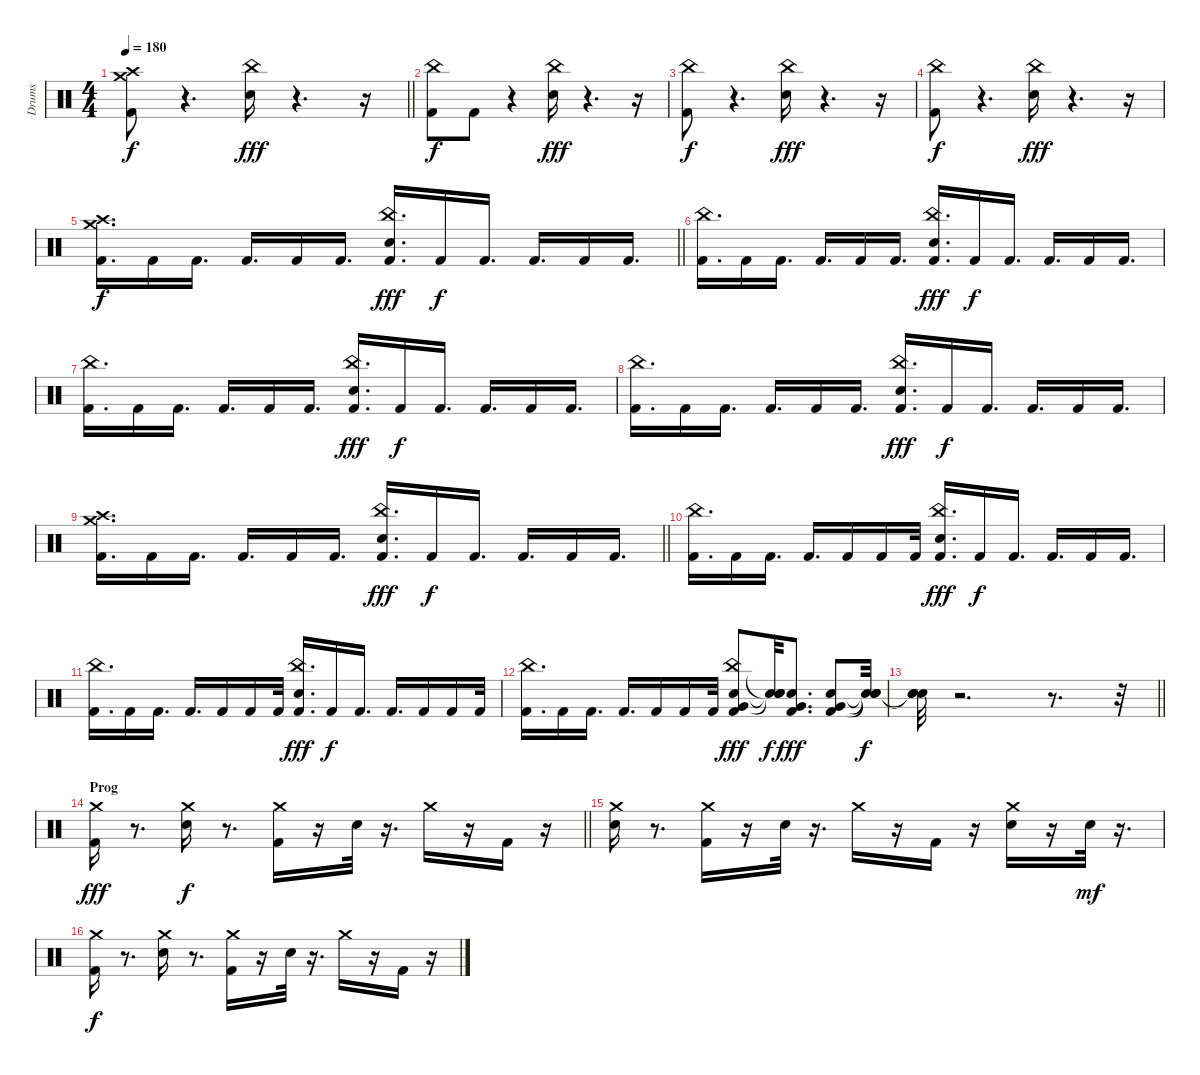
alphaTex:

\track ("Drums" "Drums") {instrument percussion}
\staff {score}
\articulation defaults
\ts (4 4)
\tempo 180
\clef neutral
\barLineRight lightlight
\ks c
("Crash high (hit)" "Crash medium (hit)" "Kick (hit) 2").8{dy f} r.4{d} ("China (hit)" "Snare (hit) 2").16{dy fff} r.4{d} r.16 |
("China (hit)" "Kick (hit) 2").8{dy f} "Kick (hit) 2".8 r.4 ("China (hit)" "Snare (hit) 2").16{dy fff} r.4{d} r.16 |
("Kick (hit) 2" "China (hit)").8{dy f} r.4{d} ("China (hit)" "Snare (hit) 2").16{dy fff} r.4{d} r.16 |
("China (hit)" "Kick (hit) 2").8{dy f} r.4{d} ("China (hit)" "Snare (hit) 2").16{dy fff} r.4{d} r.16 |
\barLineRight lightlight
("Crash high (hit)" "Crash medium (hit)" "Kick (hit) 2").16{d dy f} "Kick (hit) 2".16 "Kick (hit) 2".16{d} "Kick (hit) 2".16{d} "Kick (hit) 2".16 "Kick (hit) 2".16{d} ("China (hit)" "Snare (hit) 2" "Kick (hit) 2").16{d dy fff} "Kick (hit) 2".16{dy f} "Kick (hit) 2".16{d} "Kick (hit) 2".16{d} "Kick (hit) 2".16 "Kick (hit) 2".16{d} |
("China (hit)" "Kick (hit) 2").16{d} "Kick (hit) 2".16 "Kick (hit) 2".16{d} "Kick (hit) 2".16{d} "Kick (hit) 2".16 "Kick (hit) 2".16{d} ("China (hit)" "Kick (hit) 2" "Snare (hit) 2").16{d dy fff} "Kick (hit) 2".16{dy f} "Kick (hit) 2".16{d} "Kick (hit) 2".16{d} "Kick (hit) 2".16 "Kick (hit) 2".16{d} |
("China (hit)" "Kick (hit) 2").16{d} "Kick (hit) 2".16 "Kick (hit) 2".16{d} "Kick (hit) 2".16{d} "Kick (hit) 2".16 "Kick (hit) 2".16{d} ("China (hit)" "Snare (hit) 2" "Kick (hit) 2").16{d dy fff} "Kick (hit) 2".16{dy f} "Kick (hit) 2".16{d} "Kick (hit) 2".16{d} "Kick (hit) 2".16 "Kick (hit) 2".16{d} |
("China (hit)" "Kick (hit) 2").16{d} "Kick (hit) 2".16 "Kick (hit) 2".16{d} "Kick (hit) 2".16{d} "Kick (hit) 2".16 "Kick (hit) 2".16{d} ("China (hit)" "Kick (hit) 2" "Snare (hit) 2").16{d dy fff} "Kick (hit) 2".16{dy f} "Kick (hit) 2".16{d} "Kick (hit) 2".16{d} "Kick (hit) 2".16 "Kick (hit) 2".16{d} |
\barLineRight lightlight
("Crash high (hit)" "Crash medium (hit)" "Kick (hit) 2").16{d} "Kick (hit) 2".16 "Kick (hit) 2".16{d} "Kick (hit) 2".16{d} "Kick (hit) 2".16 "Kick (hit) 2".16{d} ("China (hit)" "Snare (hit) 2" "Kick (hit) 2").16{d dy fff} "Kick (hit) 2".16{dy f} "Kick (hit) 2".16{d} "Kick (hit) 2".16{d} "Kick (hit) 2".16 "Kick (hit) 2".16{d} |
("China (hit)" "Kick (hit) 2").16{d} "Kick (hit) 2".16 "Kick (hit) 2".16{d} "Kick (hit) 2".16{d} "Kick (hit) 2".16 "Kick (hit) 2".16 "Kick (hit) 2".32 ("China (hit)" "Kick (hit) 2" "Snare (hit) 2").16{d dy fff} "Kick (hit) 2".16{dy f} "Kick (hit) 2".16{d} "Kick (hit) 2".16{d} "Kick (hit) 2".16 "Kick (hit) 2".16{d} |
("Kick (hit) 2" "China (hit)").16{d} "Kick (hit) 2".16 "Kick (hit) 2".16{d} "Kick (hit) 2".16{d} "Kick (hit) 2".16 "Kick (hit) 2".16 "Kick (hit) 2".32 ("China (hit)" "Snare (hit) 2" "Kick (hit) 2").16{d dy fff} "Kick (hit) 2".16{dy f} "Kick (hit) 2".16{d} "Kick (hit) 2".16{d} "Kick (hit) 2".16 "Kick (hit) 2".16 "Kick (hit) 2".32 |
("China (hit)" "Kick (hit) 2").16{d} "Kick (hit) 2".16 "Kick (hit) 2".16{d} "Kick (hit) 2".16{d} "Kick (hit) 2".16 "Kick (hit) 2".16 "Kick (hit) 2".32 ("China (hit)" "Snare (hit) 2" "Very Low Tom (hit)" "Kick (hit) 2").8{dy fff} ("Snare (hit)"{t} "Snare (hit)"{t} "Snare (hit)"{t}).32{dy f} ("Snare (hit) 2" "Very Low Tom (hit)" "Kick (hit) 2").8{d dy fff} ("Snare (hit) 2" "Very Low Tom (hit)" "Kick (hit) 2").8 ("Snare (hit)"{t} "Snare (hit)"{t} "Snare (hit)"{t}).32{dy f} |
\barLineRight lightlight
("Snare (hit)"{t} "Snare (hit)"{t} "Snare (hit)"{t}).32 r.2{d} r.8{d} r.32 |
\section ("" "Prog")
\barLineRight lightlight
("Kick (hit) 2" "Crash medium (hit)").16{dy fff} r.8{d} ("Snare (hit) 2" "Crash medium (hit)").16{dy f} r.8{d} ("Kick (hit) 2" "Crash medium (hit)").16 r.16 "Snare (hit) 2".32 r.16{d} "Crash medium (hit)".16 r.16 "Kick (hit) 2".16 r.16 |
("Snare (hit) 2" "Crash medium (hit)").16 r.8{d} ("Kick (hit) 2" "Crash medium (hit)").16 r.16 "Snare (hit) 2".32 r.16{d} "Crash medium (hit)".16 r.16 "Kick (hit) 2".16 r.16 ("Snare (hit) 2" "Crash medium (hit)").16 r.16 "Snare (hit) 2".32{dy mf} r.16{d} |
("Kick (hit) 2" "Crash medium (hit)").16{dy f} r.8{d} ("Snare (hit) 2" "Crash medium (hit)").16 r.8{d} ("Kick (hit) 2" "Crash medium (hit)").16 r.16 "Snare (hit) 2".32 r.16{d} "Crash medium (hit)".16 r.16 "Kick (hit) 2".16 r.16
